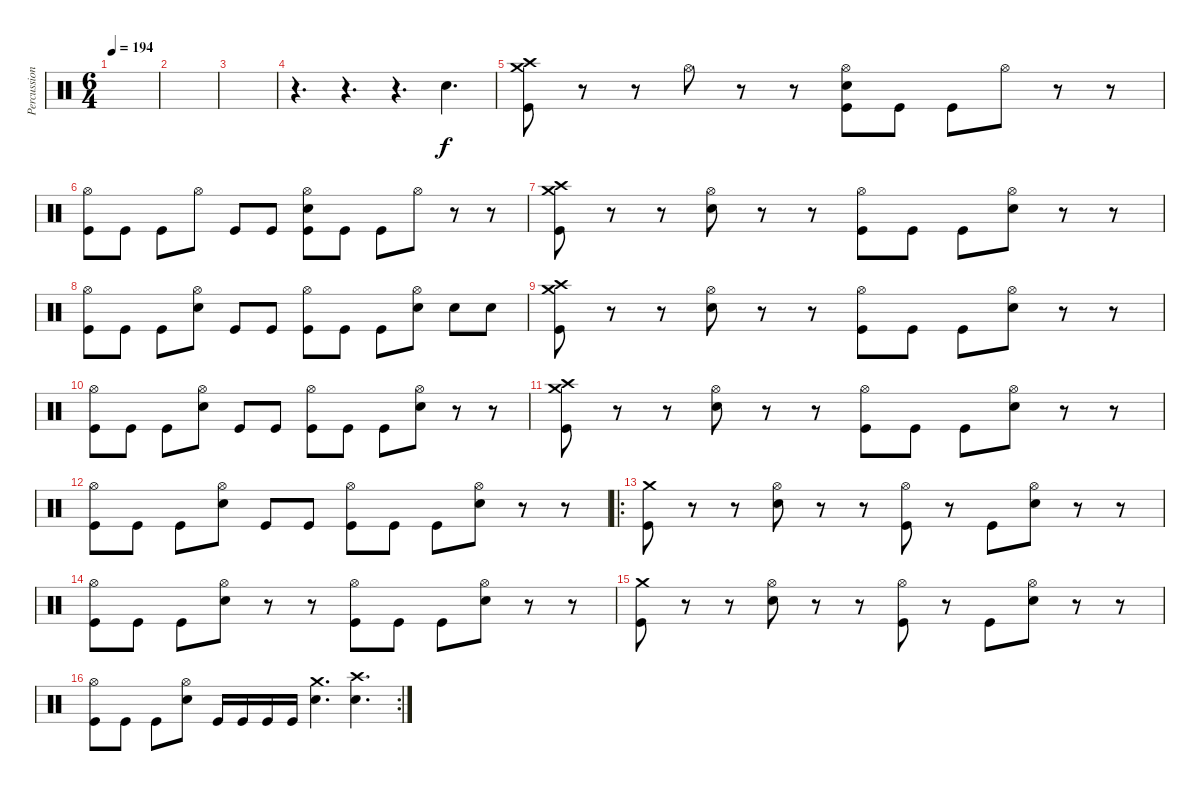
\track ("Percussion" "Percussion") {instrument percussion}
\staff {score}
\articulation defaults
\ts (6 4)
\tempo 194
\clef neutral
\ks c
|
|
|
r.4{d} r.4{d} r.4{d} "Electric Snare (hit)".4{d} |
("Crash medium (hit)" "Crash high (hit)" "Kick (hit)").8 r.8 r.8 "Hi-Hat (open)".8 r.8 r.8 ("Hi-Hat (open)" "Electric Snare (hit)" "Kick (hit)").8 "Kick (hit)".8 "Kick (hit)".8 "Hi-Hat (open)".8 r.8 r.8 |
("Hi-Hat (open)" "Kick (hit)").8 "Kick (hit)".8 "Kick (hit)".8 "Hi-Hat (open)".8 "Kick (hit)".8 "Kick (hit)".8 ("Hi-Hat (open)" "Electric Snare (hit)" "Kick (hit)").8 "Kick (hit)".8 "Kick (hit)".8 "Hi-Hat (open)".8 r.8 r.8 |
("Crash medium (hit)" "Crash high (hit)" "Kick (hit)").8 r.8 r.8 ("Hi-Hat (open)" "Electric Snare (hit)").8 r.8 r.8 ("Hi-Hat (open)" "Kick (hit)").8 "Kick (hit)".8 "Kick (hit)".8 ("Hi-Hat (open)" "Electric Snare (hit)").8 r.8 r.8 |
("Hi-Hat (open)" "Kick (hit)").8 "Kick (hit)".8 "Kick (hit)".8 ("Hi-Hat (open)" "Electric Snare (hit)").8 "Kick (hit)".8 "Kick (hit)".8 ("Hi-Hat (open)" "Kick (hit)").8 "Kick (hit)".8 "Kick (hit)".8 ("Hi-Hat (open)" "Electric Snare (hit)").8 "Electric Snare (hit)".8 "Electric Snare (hit)".8 |
("Crash medium (hit)" "Crash high (hit)" "Kick (hit)").8 r.8 r.8 ("Hi-Hat (open)" "Electric Snare (hit)").8 r.8 r.8 ("Hi-Hat (open)" "Kick (hit)").8 "Kick (hit)".8 "Kick (hit)".8 ("Hi-Hat (open)" "Electric Snare (hit)").8 r.8 r.8 |
("Hi-Hat (open)" "Kick (hit)").8 "Kick (hit)".8 "Kick (hit)".8 ("Hi-Hat (open)" "Electric Snare (hit)").8 "Kick (hit)".8 "Kick (hit)".8 ("Hi-Hat (open)" "Kick (hit)").8 "Kick (hit)".8 "Kick (hit)".8 ("Hi-Hat (open)" "Electric Snare (hit)").8 r.8 r.8 |
("Crash medium (hit)" "Crash high (hit)" "Kick (hit)").8 r.8 r.8 ("Hi-Hat (open)" "Electric Snare (hit)").8 r.8 r.8 ("Hi-Hat (open)" "Kick (hit)").8 "Kick (hit)".8 "Kick (hit)".8 ("Hi-Hat (open)" "Electric Snare (hit)").8 r.8 r.8 |
("Hi-Hat (open)" "Kick (hit)").8 "Kick (hit)".8 "Kick (hit)".8 ("Hi-Hat (open)" "Electric Snare (hit)").8 "Kick (hit)".8 "Kick (hit)".8 ("Hi-Hat (open)" "Kick (hit)").8 "Kick (hit)".8 "Kick (hit)".8 ("Hi-Hat (open)" "Electric Snare (hit)").8 r.8 r.8 |
\ro
("Crash medium (hit)" "Kick (hit)").8 r.8 r.8 ("Hi-Hat (open)" "Electric Snare (hit)").8 r.8 r.8 ("Hi-Hat (open)" "Kick (hit)").8 r.8 "Kick (hit)".8 ("Hi-Hat (open)" "Electric Snare (hit)").8 r.8 r.8 |
("Hi-Hat (open)" "Kick (hit)").8 "Kick (hit)".8 "Kick (hit)".8 ("Hi-Hat (open)" "Electric Snare (hit)").8 r.8 r.8 ("Hi-Hat (open)" "Kick (hit)").8 "Kick (hit)".8 "Kick (hit)".8 ("Hi-Hat (open)" "Electric Snare (hit)").8 r.8 r.8 |
("Crash medium (hit)" "Kick (hit)").8 r.8 r.8 ("Hi-Hat (open)" "Electric Snare (hit)").8 r.8 r.8 ("Hi-Hat (open)" "Kick (hit)").8 r.8 "Kick (hit)".8 ("Hi-Hat (open)" "Electric Snare (hit)").8 r.8 r.8 |
\rc 2
("Hi-Hat (open)" "Kick (hit)").8 "Kick (hit)".8 "Kick (hit)".8 ("Hi-Hat (open)" "Electric Snare (hit)").8 "Kick (hit)".16 "Kick (hit)".16 "Kick (hit)".16 "Kick (hit)".16 ("Crash medium (hit)" "Electric Snare (hit)").4{d} ("Crash high (hit)" "Electric Snare (hit)").4{d}
